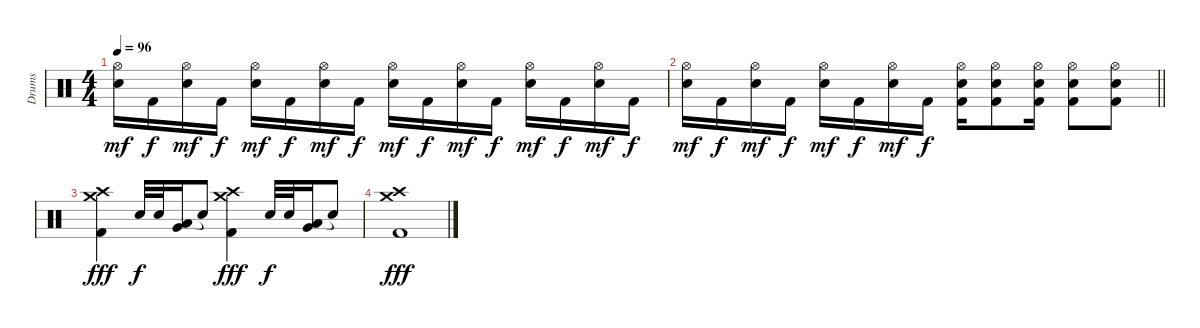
\track ("Drums" "Drums") {instrument percussion}
\staff {score}
\articulation defaults
\ts (4 4)
\tempo 96
\clef neutral
\ks c
("Hi-Hat (open)" "Electric Snare (hit)").16{dy mf} "Kick (hit) 2".16{dy f} ("Hi-Hat (open)" "Electric Snare (hit)").16{dy mf} "Kick (hit) 2".16{dy f} ("Hi-Hat (open)" "Electric Snare (hit)").16{dy mf} "Kick (hit) 2".16{dy f} ("Hi-Hat (open)" "Electric Snare (hit)").16{dy mf} "Kick (hit) 2".16{dy f} ("Hi-Hat (open)" "Electric Snare (hit)").16{dy mf} "Kick (hit) 2".16{dy f} ("Hi-Hat (open)" "Electric Snare (hit)").16{dy mf} "Kick (hit) 2".16{dy f} ("Hi-Hat (open)" "Electric Snare (hit)").16{dy mf} "Kick (hit) 2".16{dy f} ("Hi-Hat (open)" "Electric Snare (hit)").16{dy mf} "Kick (hit) 2".16{dy f} |
\barLineRight lightlight
("Hi-Hat (open)" "Electric Snare (hit)").16{dy mf} "Kick (hit) 2".16{dy f} ("Hi-Hat (open)" "Electric Snare (hit)").16{dy mf} "Kick (hit) 2".16{dy f} ("Hi-Hat (open)" "Electric Snare (hit)").16{dy mf} "Kick (hit) 2".16{dy f} ("Hi-Hat (open)" "Electric Snare (hit)").16{dy mf} "Kick (hit) 2".16{dy f} ("Hi-Hat (open)" "Electric Snare (hit)" "Kick (hit) 2").16 ("Hi-Hat (open)" "Electric Snare (hit)" "Kick (hit) 2").8 ("Hi-Hat (open)" "Electric Snare (hit)" "Kick (hit) 2").16 ("Hi-Hat (open)" "Electric Snare (hit)" "Kick (hit) 2").8 ("Hi-Hat (open)" "Electric Snare (hit)" "Kick (hit) 2").8 |
("Crash medium (hit)" "Crash high (hit)" "Kick (hit) 2").4{dy fff} "Electric Snare (hit)".32{dy f} "Electric Snare (hit)".32 ("Low Tom (hit)" "Very Low Tom (hit)").16 "Snare (hit)"{t}.8 ("Crash medium (hit)" "Crash high (hit)" "Kick (hit) 2").4{dy fff} "Electric Snare (hit)".32{dy f} "Electric Snare (hit)".32 ("Low Tom (hit)" "Very Low Tom (hit)").16 "Snare (hit)"{t}.8 |
("Crash medium (hit)" "Crash high (hit)" "Kick (hit) 2").1{dy fff}
